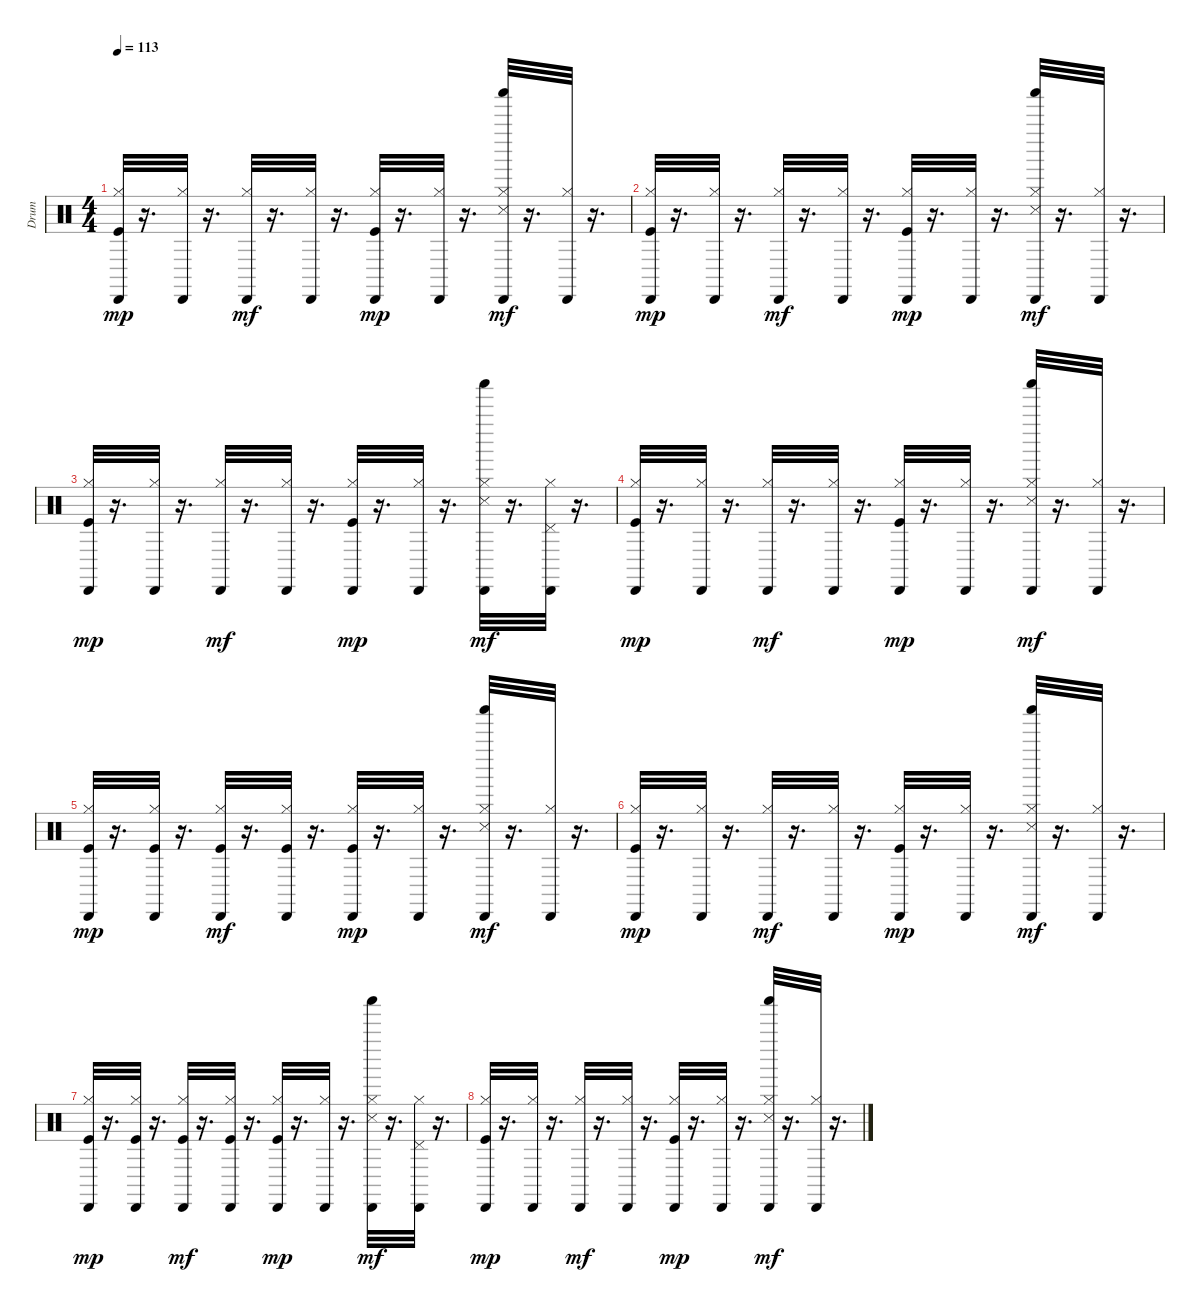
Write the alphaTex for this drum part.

\track ("Drum" "Drum") {instrument percussion}
\staff {score}
\articulation defaults
\ts (4 4)
\tempo 113
\clef neutral
\ks c
("Hi-Hat (closed)" "Kick (hit)" "Cabasa (hit)").32{dy mp} r.16{d} ("Hi-Hat (closed)" "Cabasa (hit)").32 r.16{d} ("Hi-Hat (closed)" "Cabasa (hit)").32{dy mf} r.16{d} ("Hi-Hat (closed)" "Cabasa (hit)").32 r.16{d} ("Hi-Hat (closed)" "Kick (hit)" "Cabasa (hit)").32{dy mp} r.16{d} ("Hi-Hat (closed)" "Cabasa (hit)").32 r.16{d} ("Hi-Hat (closed)" "Shaker (hit)" "Snare (side stick) 3" "Cabasa (hit)").32{dy mf} r.16{d} ("Hi-Hat (closed)" "Cabasa (hit)").32 r.16{d} |
("Hi-Hat (closed)" "Kick (hit)" "Cabasa (hit)").32{dy mp} r.16{d} ("Hi-Hat (closed)" "Cabasa (hit)").32 r.16{d} ("Hi-Hat (closed)" "Cabasa (hit)").32{dy mf} r.16{d} ("Hi-Hat (closed)" "Cabasa (hit)").32 r.16{d} ("Hi-Hat (closed)" "Kick (hit)" "Cabasa (hit)").32{dy mp} r.16{d} ("Hi-Hat (closed)" "Cabasa (hit)").32 r.16{d} ("Hi-Hat (closed)" "Shaker (hit)" "Snare (side stick) 3" "Cabasa (hit)").32{dy mf} r.16{d} ("Hi-Hat (closed)" "Cabasa (hit)").32 r.16{d} |
("Hi-Hat (closed)" "Kick (hit)" "Cabasa (hit)").32{dy mp} r.16{d} ("Hi-Hat (closed)" "Cabasa (hit)").32 r.16{d} ("Hi-Hat (closed)" "Cabasa (hit)").32{dy mf} r.16{d} ("Hi-Hat (closed)" "Cabasa (hit)").32 r.16{d} ("Hi-Hat (closed)" "Kick (hit)" "Cabasa (hit)").32{dy mp} r.16{d} ("Hi-Hat (closed)" "Cabasa (hit)").32 r.16{d} ("Hi-Hat (closed)" "Shaker (hit)" "Snare (side stick) 3" "Cabasa (hit)").32{dy mf} r.16{d} ("Hi-Hat (closed)" "Pedal Hi-Hat (hit)" "Cabasa (hit)").32 r.16{d} |
("Hi-Hat (closed)" "Kick (hit)" "Cabasa (hit)").32{dy mp} r.16{d} ("Hi-Hat (closed)" "Cabasa (hit)").32 r.16{d} ("Hi-Hat (closed)" "Cabasa (hit)").32{dy mf} r.16{d} ("Hi-Hat (closed)" "Cabasa (hit)").32 r.16{d} ("Hi-Hat (closed)" "Kick (hit)" "Cabasa (hit)").32{dy mp} r.16{d} ("Hi-Hat (closed)" "Cabasa (hit)").32 r.16{d} ("Hi-Hat (closed)" "Shaker (hit)" "Snare (side stick) 3" "Cabasa (hit)").32{dy mf} r.16{d} ("Hi-Hat (closed)" "Cabasa (hit)").32 r.16{d} |
("Hi-Hat (closed)" "Kick (hit)" "Cabasa (hit)").32{dy mp} r.16{d} ("Hi-Hat (closed)" "Kick (hit)" "Cabasa (hit)").32 r.16{d} ("Hi-Hat (closed)" "Kick (hit)" "Cabasa (hit)").32{dy mf} r.16{d} ("Hi-Hat (closed)" "Kick (hit)" "Cabasa (hit)").32 r.16{d} ("Hi-Hat (closed)" "Kick (hit)" "Cabasa (hit)").32{dy mp} r.16{d} ("Hi-Hat (closed)" "Cabasa (hit)").32 r.16{d} ("Hi-Hat (closed)" "Shaker (hit)" "Snare (side stick) 3" "Cabasa (hit)").32{dy mf} r.16{d} ("Hi-Hat (closed)" "Cabasa (hit)").32 r.16{d} |
("Hi-Hat (closed)" "Kick (hit)" "Cabasa (hit)").32{dy mp} r.16{d} ("Hi-Hat (closed)" "Cabasa (hit)").32 r.16{d} ("Hi-Hat (closed)" "Cabasa (hit)").32{dy mf} r.16{d} ("Hi-Hat (closed)" "Cabasa (hit)").32 r.16{d} ("Hi-Hat (closed)" "Kick (hit)" "Cabasa (hit)").32{dy mp} r.16{d} ("Hi-Hat (closed)" "Cabasa (hit)").32 r.16{d} ("Hi-Hat (closed)" "Shaker (hit)" "Snare (side stick) 3" "Cabasa (hit)").32{dy mf} r.16{d} ("Hi-Hat (closed)" "Cabasa (hit)").32 r.16{d} |
("Hi-Hat (closed)" "Kick (hit)" "Cabasa (hit)").32{dy mp} r.16{d} ("Hi-Hat (closed)" "Kick (hit)" "Cabasa (hit)").32 r.16{d} ("Hi-Hat (closed)" "Kick (hit)" "Cabasa (hit)").32{dy mf} r.16{d} ("Hi-Hat (closed)" "Kick (hit)" "Cabasa (hit)").32 r.16{d} ("Hi-Hat (closed)" "Kick (hit)" "Cabasa (hit)").32{dy mp} r.16{d} ("Hi-Hat (closed)" "Cabasa (hit)").32 r.16{d} ("Hi-Hat (closed)" "Shaker (hit)" "Snare (side stick) 3" "Cabasa (hit)").32{dy mf} r.16{d} ("Hi-Hat (closed)" "Pedal Hi-Hat (hit)" "Cabasa (hit)").32 r.16{d} |
("Hi-Hat (closed)" "Kick (hit)" "Cabasa (hit)").32{dy mp} r.16{d} ("Hi-Hat (closed)" "Cabasa (hit)").32 r.16{d} ("Hi-Hat (closed)" "Cabasa (hit)").32{dy mf} r.16{d} ("Hi-Hat (closed)" "Cabasa (hit)").32 r.16{d} ("Hi-Hat (closed)" "Kick (hit)" "Cabasa (hit)").32{dy mp} r.16{d} ("Hi-Hat (closed)" "Cabasa (hit)").32 r.16{d} ("Hi-Hat (closed)" "Shaker (hit)" "Snare (side stick) 3" "Cabasa (hit)").32{dy mf} r.16{d} ("Hi-Hat (closed)" "Cabasa (hit)").32 r.16{d}
